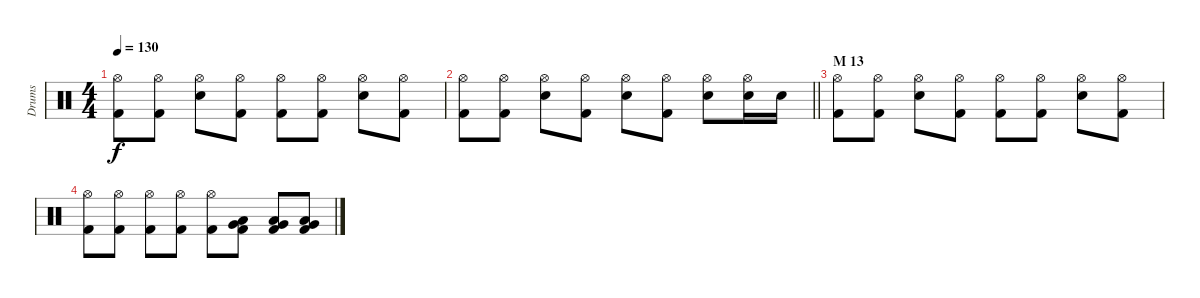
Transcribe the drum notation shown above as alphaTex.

\track ("Drums" "Drums") {instrument percussion}
\staff
\articulation defaults
\ts (4 4)
\tempo 130
\clef neutral
\ks c
("Hi-Hat (open)" "Kick (hit) 2").8{dy f} ("Hi-Hat (open)" "Kick (hit) 2").8 ("Hi-Hat (open)" "Electric Snare (hit)").8 ("Hi-Hat (open)" "Kick (hit) 2").8 ("Hi-Hat (open)" "Kick (hit) 2").8 ("Hi-Hat (open)" "Kick (hit) 2").8 ("Hi-Hat (open)" "Electric Snare (hit)").8 ("Hi-Hat (open)" "Kick (hit) 2").8 |
\barLineRight lightlight
("Hi-Hat (open)" "Kick (hit) 2").8 ("Hi-Hat (open)" "Kick (hit) 2").8 ("Hi-Hat (open)" "Electric Snare (hit)").8 ("Hi-Hat (open)" "Kick (hit) 2").8 ("Hi-Hat (open)" "Electric Snare (hit)").8 ("Hi-Hat (open)" "Kick (hit) 2").8 ("Hi-Hat (open)" "Electric Snare (hit)").8 ("Hi-Hat (open)" "Electric Snare (hit)").16 "Electric Snare (hit)".16 |
\section ("" "M 13")
("Hi-Hat (open)" "Kick (hit) 2").8 ("Hi-Hat (open)" "Kick (hit) 2").8 ("Hi-Hat (open)" "Electric Snare (hit)").8 ("Hi-Hat (open)" "Kick (hit) 2").8 ("Hi-Hat (open)" "Kick (hit) 2").8 ("Hi-Hat (open)" "Kick (hit) 2").8 ("Hi-Hat (open)" "Electric Snare (hit)").8 ("Hi-Hat (open)" "Kick (hit) 2").8 |
("Hi-Hat (open)" "Kick (hit) 2").8 ("Hi-Hat (open)" "Kick (hit) 2").8 ("Hi-Hat (open)" "Kick (hit) 2").8 ("Hi-Hat (open)" "Kick (hit) 2").8 ("Hi-Hat (open)" "Kick (hit) 2").8 ("Very Low Tom (hit)" "Low Floor Tom (hit)" "Kick (hit) 2").8 ("Very Low Tom (hit)" "Low Floor Tom (hit)" "Kick (hit) 2").8 ("Very Low Tom (hit)" "Low Floor Tom (hit)" "Kick (hit) 2").8
